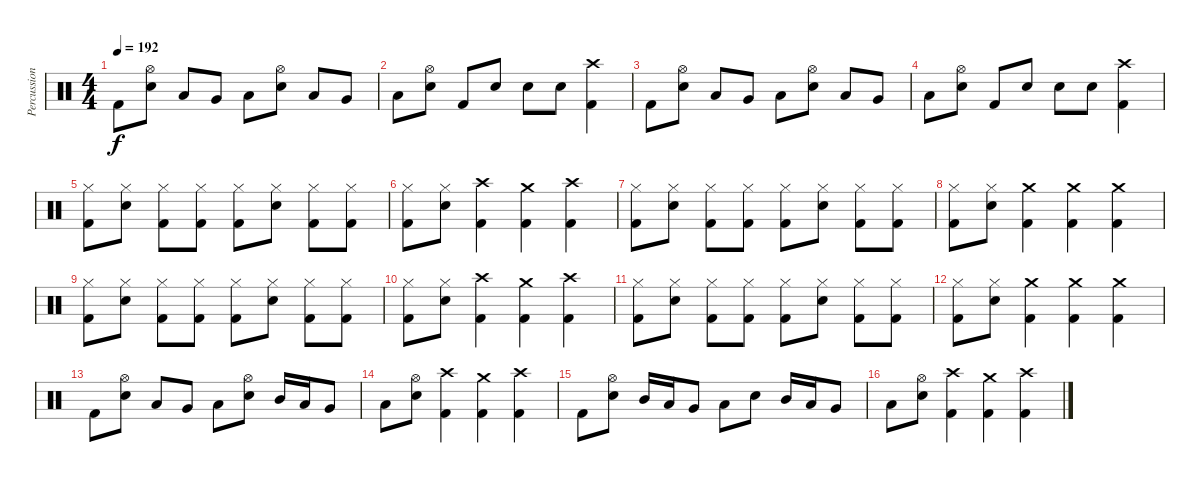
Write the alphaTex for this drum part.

\track ("Percussion" "Percussion") {instrument percussion}
\staff {score}
\articulation defaults
\ts (4 4)
\tempo 192
\clef neutral
\ks c "Kick (hit) 2".8{dy f}
("Hi-Hat (open)" "Electric Snare (hit)").8 "Low Tom (hit)".8 "Very Low Tom (hit)".8 "Low Floor Tom (hit)".8 ("Hi-Hat (open)" "Electric Snare (hit)").8 "Low Tom (hit)".8 "Very Low Tom (hit)".8 |
"Low Floor Tom (hit)".8 ("Hi-Hat (open)" "Electric Snare (hit)").8 "Kick (hit) 2".8 "Electric Snare (hit)".8 "Electric Snare (hit)".8 "Electric Snare (hit)".8 ("Crash high (hit)" "Kick (hit) 2").4 |
"Kick (hit) 2".8 ("Hi-Hat (open)" "Electric Snare (hit)").8 "Low Tom (hit)".8 "Very Low Tom (hit)".8 "Low Floor Tom (hit)".8 ("Hi-Hat (open)" "Electric Snare (hit)").8 "Low Tom (hit)".8 "Very Low Tom (hit)".8 |
"Low Floor Tom (hit)".8 ("Hi-Hat (open)" "Electric Snare (hit)").8 "Kick (hit) 2".8 "Electric Snare (hit)".8 "Electric Snare (hit)".8 "Electric Snare (hit)".8 ("Crash high (hit)" "Kick (hit) 2").4 |
("Hi-Hat (closed)" "Kick (hit) 2").8 ("Hi-Hat (closed)" "Electric Snare (hit)").8 ("Hi-Hat (closed)" "Kick (hit) 2").8 ("Hi-Hat (closed)" "Kick (hit) 2").8 ("Hi-Hat (closed)" "Kick (hit) 2").8 ("Hi-Hat (closed)" "Electric Snare (hit)").8 ("Hi-Hat (closed)" "Kick (hit) 2").8 ("Hi-Hat (closed)" "Kick (hit) 2").8 |
("Hi-Hat (closed)" "Kick (hit) 2").8 ("Hi-Hat (closed)" "Electric Snare (hit)").8 ("Crash high (hit)" "Kick (hit) 2").4 ("Crash medium (hit)" "Kick (hit) 2").4 ("Crash high (hit)" "Kick (hit) 2").4 |
("Hi-Hat (closed)" "Kick (hit) 2").8 ("Hi-Hat (closed)" "Electric Snare (hit)").8 ("Hi-Hat (closed)" "Kick (hit) 2").8 ("Hi-Hat (closed)" "Kick (hit) 2").8 ("Hi-Hat (closed)" "Kick (hit) 2").8 ("Hi-Hat (closed)" "Electric Snare (hit)").8 ("Hi-Hat (closed)" "Kick (hit) 2").8 ("Hi-Hat (closed)" "Kick (hit) 2").8 |
("Hi-Hat (closed)" "Kick (hit) 2").8 ("Hi-Hat (closed)" "Electric Snare (hit)").8 ("Crash medium (hit)" "Kick (hit) 2").4 ("Crash medium (hit)" "Kick (hit) 2").4 ("Crash medium (hit)" "Kick (hit) 2").4 |
("Hi-Hat (closed)" "Kick (hit) 2").8 ("Hi-Hat (closed)" "Electric Snare (hit)").8 ("Hi-Hat (closed)" "Kick (hit) 2").8 ("Hi-Hat (closed)" "Kick (hit) 2").8 ("Hi-Hat (closed)" "Kick (hit) 2").8 ("Hi-Hat (closed)" "Electric Snare (hit)").8 ("Hi-Hat (closed)" "Kick (hit) 2").8 ("Hi-Hat (closed)" "Kick (hit) 2").8 |
("Hi-Hat (closed)" "Kick (hit) 2").8 ("Hi-Hat (closed)" "Electric Snare (hit)").8 ("Crash high (hit)" "Kick (hit) 2").4 ("Crash medium (hit)" "Kick (hit) 2").4 ("Crash high (hit)" "Kick (hit) 2").4 |
("Hi-Hat (closed)" "Kick (hit) 2").8 ("Hi-Hat (closed)" "Electric Snare (hit)").8 ("Hi-Hat (closed)" "Kick (hit) 2").8 ("Hi-Hat (closed)" "Kick (hit) 2").8 ("Hi-Hat (closed)" "Kick (hit) 2").8 ("Hi-Hat (closed)" "Electric Snare (hit)").8 ("Hi-Hat (closed)" "Kick (hit) 2").8 ("Hi-Hat (closed)" "Kick (hit) 2").8 |
("Hi-Hat (closed)" "Kick (hit) 2").8 ("Hi-Hat (closed)" "Electric Snare (hit)").8 ("Crash medium (hit)" "Kick (hit) 2").4 ("Crash medium (hit)" "Kick (hit) 2").4 ("Crash medium (hit)" "Kick (hit) 2").4 |
"Kick (hit) 2".8 ("Hi-Hat (open)" "Electric Snare (hit)").8 "Low Tom (hit)".8 "Very Low Tom (hit)".8 "Low Floor Tom (hit)".8 ("Hi-Hat (open)" "Electric Snare (hit)").8 "Mid Tom (hit)".16 "Low Tom (hit)".16 "Very Low Tom (hit)".8 |
"Low Floor Tom (hit)".8 ("Hi-Hat (open)" "Electric Snare (hit)").8 ("Crash high (hit)" "Kick (hit) 2").4 ("Crash medium (hit)" "Kick (hit) 2").4 ("Crash high (hit)" "Kick (hit) 2").4 |
"Kick (hit) 2".8 ("Hi-Hat (open)" "Electric Snare (hit)").8 "Mid Tom (hit)".16 "Low Tom (hit)".16 "Very Low Tom (hit)".8 "Low Floor Tom (hit)".8 "Electric Snare (hit)".8 "Mid Tom (hit)".16 "Low Tom (hit)".16 "Very Low Tom (hit)".8 |
"Low Floor Tom (hit)".8 ("Hi-Hat (open)" "Electric Snare (hit)").8 ("Crash high (hit)" "Kick (hit) 2").4 ("Crash medium (hit)" "Kick (hit) 2").4 ("Crash high (hit)" "Kick (hit) 2").4
